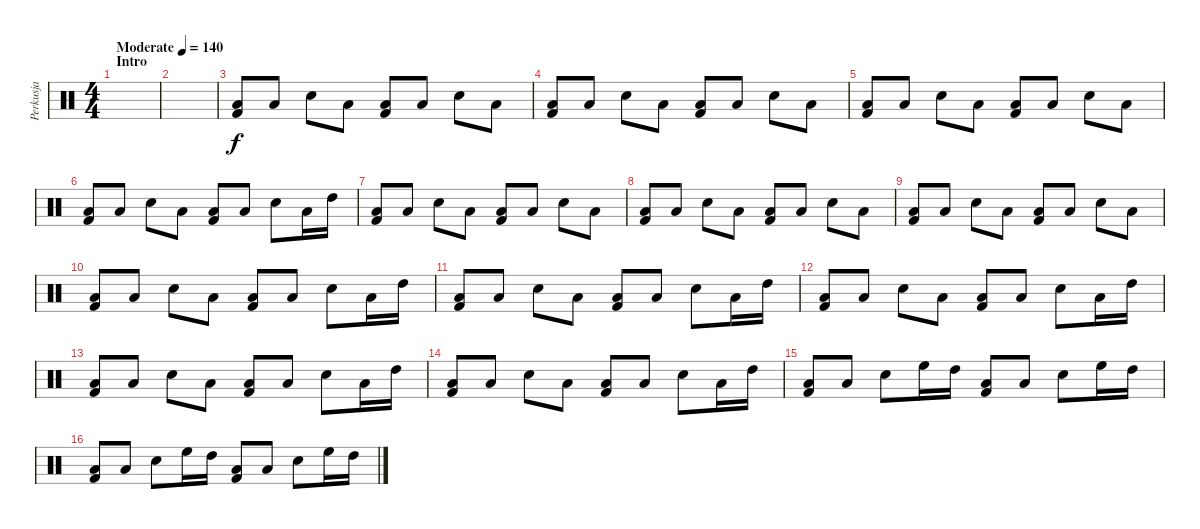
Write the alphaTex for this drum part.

\track ("Perkusja" "Perkusja") {instrument percussion}
\staff {score}
\articulation defaults
\ts (4 4)
\section ("" "Intro")
\tempo (140 "Moderate")
\clef neutral
\ks c
|
|
("Low Floor Tom (hit)" "Kick (hit) 2").8 "Low Floor Tom (hit)".8 "Snare (hit) 2".8 "Low Floor Tom (hit)".8 ("Low Floor Tom (hit)" "Kick (hit) 2").8 "Low Floor Tom (hit)".8 "Snare (hit) 2".8 "Low Floor Tom (hit)".8 |
("Low Floor Tom (hit)" "Kick (hit) 2").8 "Low Floor Tom (hit)".8 "Snare (hit) 2".8 "Low Floor Tom (hit)".8 ("Low Floor Tom (hit)" "Kick (hit) 2").8 "Low Floor Tom (hit)".8 "Snare (hit) 2".8 "Low Floor Tom (hit)".8 |
("Low Floor Tom (hit)" "Kick (hit) 2").8 "Low Floor Tom (hit)".8 "Snare (hit) 2".8 "Low Floor Tom (hit)".8 ("Low Floor Tom (hit)" "Kick (hit) 2").8 "Low Floor Tom (hit)".8 "Snare (hit) 2".8 "Low Floor Tom (hit)".8 |
("Low Floor Tom (hit)" "Kick (hit) 2").8 "Low Floor Tom (hit)".8 "Snare (hit) 2".8 "Low Floor Tom (hit)".8 ("Low Floor Tom (hit)" "Kick (hit) 2").8 "Low Floor Tom (hit)".8 "Snare (hit) 2".8 "Low Floor Tom (hit)".16 "High Tom (hit)".16 |
("Low Floor Tom (hit)" "Kick (hit) 2").8 "Low Floor Tom (hit)".8 "Snare (hit) 2".8 "Low Floor Tom (hit)".8 ("Low Floor Tom (hit)" "Kick (hit) 2").8 "Low Floor Tom (hit)".8 "Snare (hit) 2".8 "Low Floor Tom (hit)".8 |
("Low Floor Tom (hit)" "Kick (hit) 2").8 "Low Floor Tom (hit)".8 "Snare (hit) 2".8 "Low Floor Tom (hit)".8 ("Low Floor Tom (hit)" "Kick (hit) 2").8 "Low Floor Tom (hit)".8 "Snare (hit) 2".8 "Low Floor Tom (hit)".8 |
("Low Floor Tom (hit)" "Kick (hit) 2").8 "Low Floor Tom (hit)".8 "Snare (hit) 2".8 "Low Floor Tom (hit)".8 ("Low Floor Tom (hit)" "Kick (hit) 2").8 "Low Floor Tom (hit)".8 "Snare (hit) 2".8 "Low Floor Tom (hit)".8 |
("Low Floor Tom (hit)" "Kick (hit) 2").8 "Low Floor Tom (hit)".8 "Snare (hit) 2".8 "Low Floor Tom (hit)".8 ("Low Floor Tom (hit)" "Kick (hit) 2").8 "Low Floor Tom (hit)".8 "Snare (hit) 2".8 "Low Floor Tom (hit)".16 "High Tom (hit)".16 |
("Low Floor Tom (hit)" "Kick (hit) 2").8 "Low Floor Tom (hit)".8 "Snare (hit) 2".8 "Low Floor Tom (hit)".8 ("Low Floor Tom (hit)" "Kick (hit) 2").8 "Low Floor Tom (hit)".8 "Snare (hit) 2".8 "Low Floor Tom (hit)".16 "High Tom (hit)".16 |
("Low Floor Tom (hit)" "Kick (hit) 2").8 "Low Floor Tom (hit)".8 "Snare (hit) 2".8 "Low Floor Tom (hit)".8 ("Low Floor Tom (hit)" "Kick (hit) 2").8 "Low Floor Tom (hit)".8 "Snare (hit) 2".8 "Low Floor Tom (hit)".16 "High Tom (hit)".16 |
("Low Floor Tom (hit)" "Kick (hit) 2").8 "Low Floor Tom (hit)".8 "Snare (hit) 2".8 "Low Floor Tom (hit)".8 ("Low Floor Tom (hit)" "Kick (hit) 2").8 "Low Floor Tom (hit)".8 "Snare (hit) 2".8 "Low Floor Tom (hit)".16 "High Tom (hit)".16 |
("Low Floor Tom (hit)" "Kick (hit) 2").8 "Low Floor Tom (hit)".8 "Snare (hit) 2".8 "Low Floor Tom (hit)".8 ("Low Floor Tom (hit)" "Kick (hit) 2").8 "Low Floor Tom (hit)".8 "Snare (hit) 2".8 "Low Floor Tom (hit)".16 "High Tom (hit)".16 |
("Low Floor Tom (hit)" "Kick (hit) 2").8 "Low Floor Tom (hit)".8 "Snare (hit) 2".8 "High Floor Tom (hit)".16 "High Tom (hit)".16 ("Low Floor Tom (hit)" "Kick (hit) 2").8 "Low Floor Tom (hit)".8 "Snare (hit) 2".8 "High Floor Tom (hit)".16 "High Tom (hit)".16 |
("Low Floor Tom (hit)" "Kick (hit) 2").8 "Low Floor Tom (hit)".8 "Snare (hit) 2".8 "High Floor Tom (hit)".16 "High Tom (hit)".16 ("Low Floor Tom (hit)" "Kick (hit) 2").8 "Low Floor Tom (hit)".8 "Snare (hit) 2".8 "High Floor Tom (hit)".16 "High Tom (hit)".16
